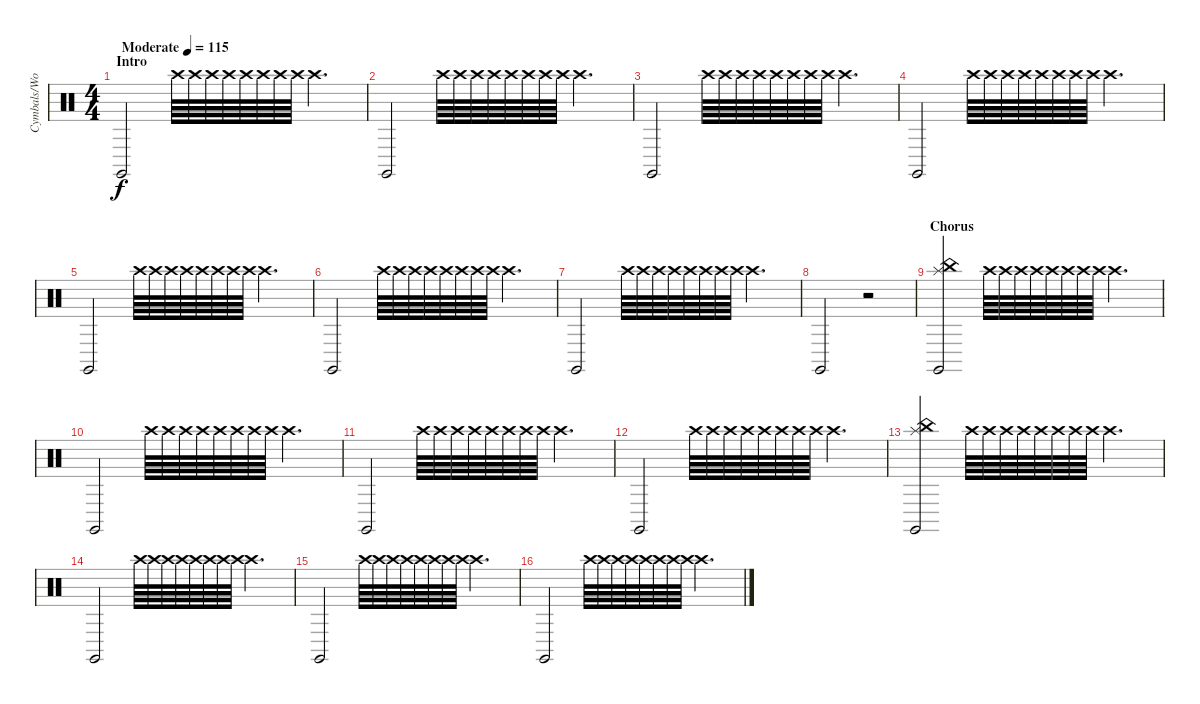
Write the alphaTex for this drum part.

\track ("Cymbals/Woodblock" "Cymbals/Wo") {instrument percussion}
\staff {score}
\articulation defaults
\ts (4 4)
\section ("" "Intro")
\tempo (115 "Moderate")
\clef neutral
\ks c "Claves (hit)".2{dy f} "Crash high (hit)".64 "Crash high (hit)".64 "Crash high (hit)".64 "Crash high (hit)".64 "Crash high (hit)".64 "Crash high (hit)".64 "Crash high (hit)".64 "Crash high (hit)".64 "Crash high (hit)".4{d}
|
"Claves (hit)".2 "Crash high (hit)".64 "Crash high (hit)".64 "Crash high (hit)".64 "Crash high (hit)".64 "Crash high (hit)".64 "Crash high (hit)".64 "Crash high (hit)".64 "Crash high (hit)".64 "Crash high (hit)".4{d} |
"Claves (hit)".2 "Crash high (hit)".64 "Crash high (hit)".64 "Crash high (hit)".64 "Crash high (hit)".64 "Crash high (hit)".64 "Crash high (hit)".64 "Crash high (hit)".64 "Crash high (hit)".64 "Crash high (hit)".4{d} |
"Claves (hit)".2 "Crash high (hit)".64 "Crash high (hit)".64 "Crash high (hit)".64 "Crash high (hit)".64 "Crash high (hit)".64 "Crash high (hit)".64 "Crash high (hit)".64 "Crash high (hit)".64 "Crash high (hit)".4{d} |
"Claves (hit)".2 "Crash high (hit)".64 "Crash high (hit)".64 "Crash high (hit)".64 "Crash high (hit)".64 "Crash high (hit)".64 "Crash high (hit)".64 "Crash high (hit)".64 "Crash high (hit)".64 "Crash high (hit)".4{d} |
"Claves (hit)".2 "Crash high (hit)".64 "Crash high (hit)".64 "Crash high (hit)".64 "Crash high (hit)".64 "Crash high (hit)".64 "Crash high (hit)".64 "Crash high (hit)".64 "Crash high (hit)".64 "Crash high (hit)".4{d} |
"Claves (hit)".2 "Crash high (hit)".64 "Crash high (hit)".64 "Crash high (hit)".64 "Crash high (hit)".64 "Crash high (hit)".64 "Crash high (hit)".64 "Crash high (hit)".64 "Crash high (hit)".64 "Crash high (hit)".4{d} |
"Claves (hit)".2 r.2 |
\section ("" "Chorus")
("Splash (hit)" "China (hit)" "Claves (hit)").2 "Crash high (hit)".64 "Crash high (hit)".64 "Crash high (hit)".64 "Crash high (hit)".64 "Crash high (hit)".64 "Crash high (hit)".64 "Crash high (hit)".64 "Crash high (hit)".64 "Crash high (hit)".4{d} |
"Claves (hit)".2 "Crash high (hit)".64 "Crash high (hit)".64 "Crash high (hit)".64 "Crash high (hit)".64 "Crash high (hit)".64 "Crash high (hit)".64 "Crash high (hit)".64 "Crash high (hit)".64 "Crash high (hit)".4{d} |
"Claves (hit)".2 "Crash high (hit)".64 "Crash high (hit)".64 "Crash high (hit)".64 "Crash high (hit)".64 "Crash high (hit)".64 "Crash high (hit)".64 "Crash high (hit)".64 "Crash high (hit)".64 "Crash high (hit)".4{d} |
"Claves (hit)".2 "Crash high (hit)".64 "Crash high (hit)".64 "Crash high (hit)".64 "Crash high (hit)".64 "Crash high (hit)".64 "Crash high (hit)".64 "Crash high (hit)".64 "Crash high (hit)".64 "Crash high (hit)".4{d} |
("Splash (hit)" "China (hit)" "Claves (hit)").2 "Crash high (hit)".64 "Crash high (hit)".64 "Crash high (hit)".64 "Crash high (hit)".64 "Crash high (hit)".64 "Crash high (hit)".64 "Crash high (hit)".64 "Crash high (hit)".64 "Crash high (hit)".4{d} |
"Claves (hit)".2 "Crash high (hit)".64 "Crash high (hit)".64 "Crash high (hit)".64 "Crash high (hit)".64 "Crash high (hit)".64 "Crash high (hit)".64 "Crash high (hit)".64 "Crash high (hit)".64 "Crash high (hit)".4{d} |
"Claves (hit)".2 "Crash high (hit)".64 "Crash high (hit)".64 "Crash high (hit)".64 "Crash high (hit)".64 "Crash high (hit)".64 "Crash high (hit)".64 "Crash high (hit)".64 "Crash high (hit)".64 "Crash high (hit)".4{d} |
"Claves (hit)".2 "Crash high (hit)".64 "Crash high (hit)".64 "Crash high (hit)".64 "Crash high (hit)".64 "Crash high (hit)".64 "Crash high (hit)".64 "Crash high (hit)".64 "Crash high (hit)".64 "Crash high (hit)".4{d}
